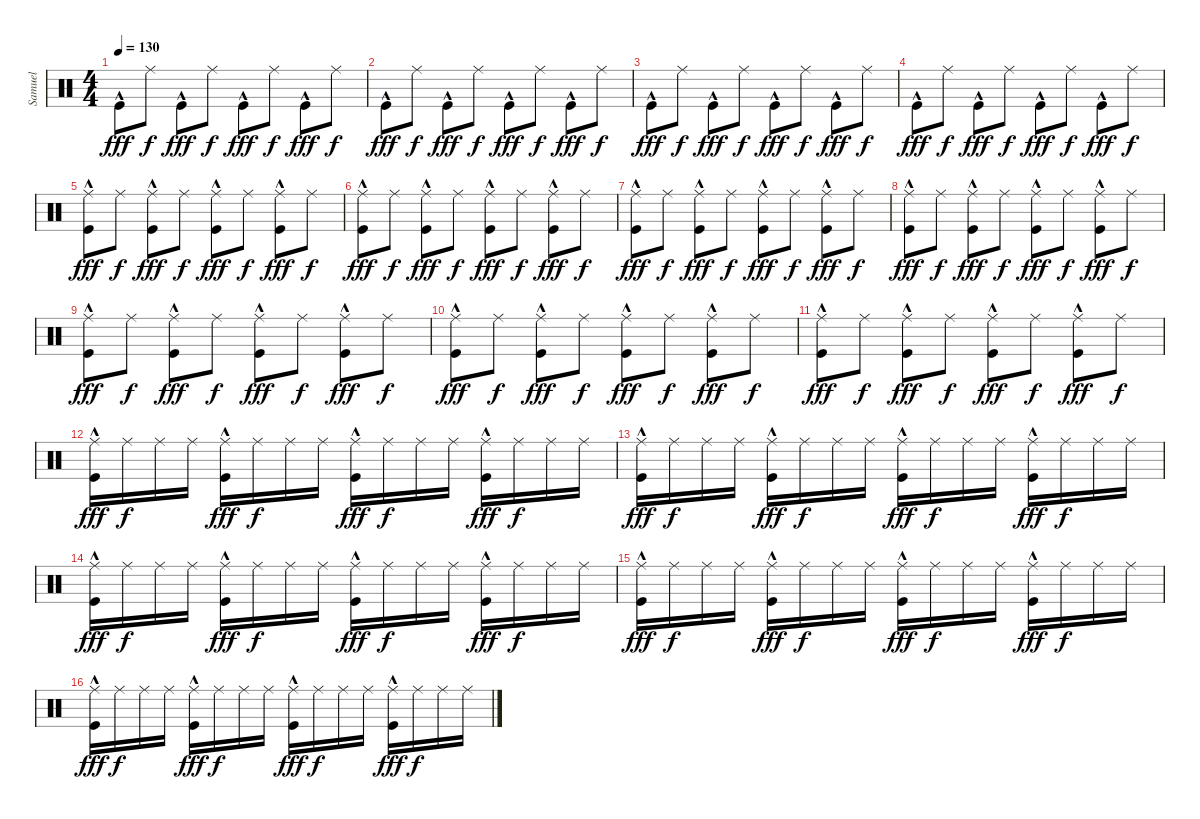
\track ("Samuel" "Samuel") {instrument percussion}
\staff {score}
\articulation defaults
\ts (4 4)
\tempo 130
\clef neutral
\ks c "Kick (hit)"{hac}.8{dy fff} "Ride (middle)".8{dy f} "Kick (hit)"{hac}.8{dy fff} "Ride (middle)".8{dy f} "Kick (hit)"{hac}.8{dy fff} "Ride (middle)".8{dy f} "Kick (hit)"{hac}.8{dy fff} "Ride (middle)".8{dy f}
|
"Kick (hit)"{hac}.8{dy fff} "Ride (middle)".8{dy f} "Kick (hit)"{hac}.8{dy fff} "Ride (middle)".8{dy f} "Kick (hit)"{hac}.8{dy fff} "Ride (middle)".8{dy f} "Kick (hit)"{hac}.8{dy fff} "Ride (middle)".8{dy f} |
"Kick (hit)"{hac}.8{dy fff} "Ride (middle)".8{dy f} "Kick (hit)"{hac}.8{dy fff} "Ride (middle)".8{dy f} "Kick (hit)"{hac}.8{dy fff} "Ride (middle)".8{dy f} "Kick (hit)"{hac}.8{dy fff} "Ride (middle)".8{dy f} |
"Kick (hit)"{hac}.8{dy fff} "Ride (middle)".8{dy f} "Kick (hit)"{hac}.8{dy fff} "Ride (middle)".8{dy f} "Kick (hit)"{hac}.8{dy fff} "Ride (middle)".8{dy f} "Kick (hit)"{hac}.8{dy fff} "Ride (middle)".8{dy f} |
("Ride (middle)" "Kick (hit)"{hac}).8{dy fff} "Ride (middle)".8{dy f} ("Ride (middle)" "Kick (hit)"{hac}).8{dy fff} "Ride (middle)".8{dy f} ("Ride (middle)" "Kick (hit)"{hac}).8{dy fff} "Ride (middle)".8{dy f} ("Ride (middle)" "Kick (hit)"{hac}).8{dy fff} "Ride (middle)".8{dy f} |
("Ride (middle)" "Kick (hit)"{hac}).8{dy fff} "Ride (middle)".8{dy f} ("Ride (middle)" "Kick (hit)"{hac}).8{dy fff} "Ride (middle)".8{dy f} ("Ride (middle)" "Kick (hit)"{hac}).8{dy fff} "Ride (middle)".8{dy f} ("Ride (middle)" "Kick (hit)"{hac}).8{dy fff} "Ride (middle)".8{dy f} |
("Ride (middle)" "Kick (hit)"{hac}).8{dy fff} "Ride (middle)".8{dy f} ("Ride (middle)" "Kick (hit)"{hac}).8{dy fff} "Ride (middle)".8{dy f} ("Ride (middle)" "Kick (hit)"{hac}).8{dy fff} "Ride (middle)".8{dy f} ("Ride (middle)" "Kick (hit)"{hac}).8{dy fff} "Ride (middle)".8{dy f} |
("Ride (middle)" "Kick (hit)"{hac}).8{dy fff} "Ride (middle)".8{dy f} ("Ride (middle)" "Kick (hit)"{hac}).8{dy fff} "Ride (middle)".8{dy f} ("Ride (middle)" "Kick (hit)"{hac}).8{dy fff} "Ride (middle)".8{dy f} ("Ride (middle)" "Kick (hit)"{hac}).8{dy fff} "Ride (middle)".8{dy f} |
("Ride (middle)" "Kick (hit)"{hac}).8{dy fff} "Ride (middle)".8{dy f} ("Ride (middle)" "Kick (hit)"{hac}).8{dy fff} "Ride (middle)".8{dy f} ("Ride (middle)" "Kick (hit)"{hac}).8{dy fff} "Ride (middle)".8{dy f} ("Ride (middle)" "Kick (hit)"{hac}).8{dy fff} "Ride (middle)".8{dy f} |
("Ride (middle)" "Kick (hit)"{hac}).8{dy fff} "Ride (middle)".8{dy f} ("Ride (middle)" "Kick (hit)"{hac}).8{dy fff} "Ride (middle)".8{dy f} ("Ride (middle)" "Kick (hit)"{hac}).8{dy fff} "Ride (middle)".8{dy f} ("Ride (middle)" "Kick (hit)"{hac}).8{dy fff} "Ride (middle)".8{dy f} |
("Ride (middle)" "Kick (hit)"{hac}).8{dy fff} "Ride (middle)".8{dy f} ("Ride (middle)" "Kick (hit)"{hac}).8{dy fff} "Ride (middle)".8{dy f} ("Ride (middle)" "Kick (hit)"{hac}).8{dy fff} "Ride (middle)".8{dy f} ("Ride (middle)" "Kick (hit)"{hac}).8{dy fff} "Ride (middle)".8{dy f} |
("Ride (middle)" "Kick (hit)"{hac}).16{dy fff} "Ride (middle)".16{dy f} "Ride (middle)".16 "Ride (middle)".16 ("Ride (middle)" "Kick (hit)"{hac}).16{dy fff} "Ride (middle)".16{dy f} "Ride (middle)".16 "Ride (middle)".16 ("Ride (middle)" "Kick (hit)"{hac}).16{dy fff} "Ride (middle)".16{dy f} "Ride (middle)".16 "Ride (middle)".16 ("Ride (middle)" "Kick (hit)"{hac}).16{dy fff} "Ride (middle)".16{dy f} "Ride (middle)".16 "Ride (middle)".16 |
("Ride (middle)" "Kick (hit)"{hac}).16{dy fff} "Ride (middle)".16{dy f} "Ride (middle)".16 "Ride (middle)".16 ("Ride (middle)" "Kick (hit)"{hac}).16{dy fff} "Ride (middle)".16{dy f} "Ride (middle)".16 "Ride (middle)".16 ("Ride (middle)" "Kick (hit)"{hac}).16{dy fff} "Ride (middle)".16{dy f} "Ride (middle)".16 "Ride (middle)".16 ("Ride (middle)" "Kick (hit)"{hac}).16{dy fff} "Ride (middle)".16{dy f} "Ride (middle)".16 "Ride (middle)".16 |
("Ride (middle)" "Kick (hit)"{hac}).16{dy fff} "Ride (middle)".16{dy f} "Ride (middle)".16 "Ride (middle)".16 ("Ride (middle)" "Kick (hit)"{hac}).16{dy fff} "Ride (middle)".16{dy f} "Ride (middle)".16 "Ride (middle)".16 ("Ride (middle)" "Kick (hit)"{hac}).16{dy fff} "Ride (middle)".16{dy f} "Ride (middle)".16 "Ride (middle)".16 ("Ride (middle)" "Kick (hit)"{hac}).16{dy fff} "Ride (middle)".16{dy f} "Ride (middle)".16 "Ride (middle)".16 |
("Ride (middle)" "Kick (hit)"{hac}).16{dy fff} "Ride (middle)".16{dy f} "Ride (middle)".16 "Ride (middle)".16 ("Ride (middle)" "Kick (hit)"{hac}).16{dy fff} "Ride (middle)".16{dy f} "Ride (middle)".16 "Ride (middle)".16 ("Ride (middle)" "Kick (hit)"{hac}).16{dy fff} "Ride (middle)".16{dy f} "Ride (middle)".16 "Ride (middle)".16 ("Ride (middle)" "Kick (hit)"{hac}).16{dy fff} "Ride (middle)".16{dy f} "Ride (middle)".16 "Ride (middle)".16 |
("Ride (middle)" "Kick (hit)"{hac}).16{dy fff} "Ride (middle)".16{dy f} "Ride (middle)".16 "Ride (middle)".16 ("Ride (middle)" "Kick (hit)"{hac}).16{dy fff} "Ride (middle)".16{dy f} "Ride (middle)".16 "Ride (middle)".16 ("Ride (middle)" "Kick (hit)"{hac}).16{dy fff} "Ride (middle)".16{dy f} "Ride (middle)".16 "Ride (middle)".16 ("Ride (middle)" "Kick (hit)"{hac}).16{dy fff} "Ride (middle)".16{dy f} "Ride (middle)".16 "Ride (middle)".16
